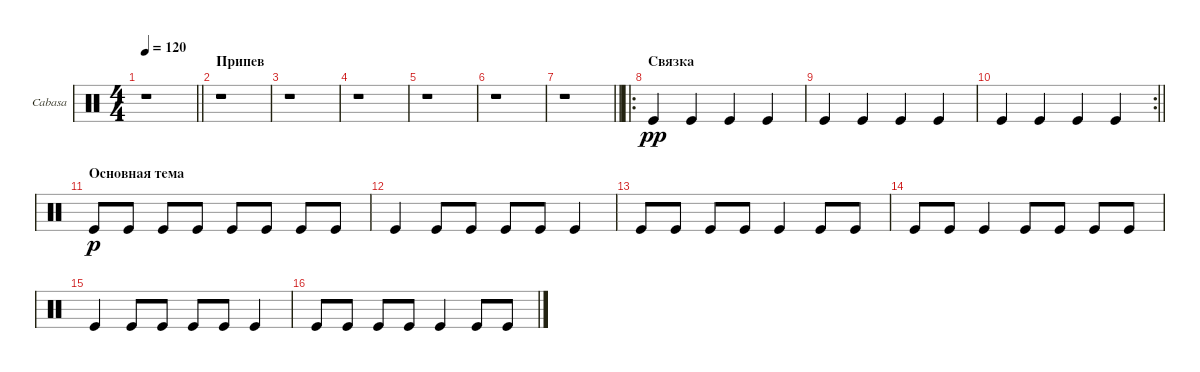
\bracketExtendMode groupsimilarinstruments
\firstSystemTrackNameOrientation horizontal
\otherSystemsTrackNameOrientation horizontal
\track ("Cabasa" "Cabasa") {instrument percussion}
\staff {score}
\articulation defaults
\ts (4 4)
\tempo 120
\clef neutral
\barLineRight lightlight
\ks c
r.1{dy mp} |
\section ("" "Припев")
r.1 |
r.1 |
r.1 |
r.1 |
r.1 |
\barLineRight lightlight
r.1 |
\ro
\section ("" "Связка")
"Kick (hit)".4{dy pp} "Kick (hit)".4 "Kick (hit)".4 "Kick (hit)".4 |
"Kick (hit)".4 "Kick (hit)".4 "Kick (hit)".4 "Kick (hit)".4 |
\rc 2
\barLineRight lightlight "Kick (hit)".4 "Kick (hit)".4 "Kick (hit)".4 "Kick (hit)".4
|
\section ("" "Основная тема")
"Kick (hit)".8{dy p} "Kick (hit)".8 "Kick (hit)".8 "Kick (hit)".8 "Kick (hit)".8 "Kick (hit)".8 "Kick (hit)".8 "Kick (hit)".8 |
"Kick (hit)".4 "Kick (hit)".8 "Kick (hit)".8 "Kick (hit)".8 "Kick (hit)".8 "Kick (hit)".4 |
"Kick (hit)".8 "Kick (hit)".8 "Kick (hit)".8 "Kick (hit)".8 "Kick (hit)".4 "Kick (hit)".8 "Kick (hit)".8 |
"Kick (hit)".8 "Kick (hit)".8 "Kick (hit)".4 "Kick (hit)".8 "Kick (hit)".8 "Kick (hit)".8 "Kick (hit)".8 |
"Kick (hit)".4 "Kick (hit)".8 "Kick (hit)".8 "Kick (hit)".8 "Kick (hit)".8 "Kick (hit)".4 |
"Kick (hit)".8 "Kick (hit)".8 "Kick (hit)".8 "Kick (hit)".8 "Kick (hit)".4 "Kick (hit)".8 "Kick (hit)".8
